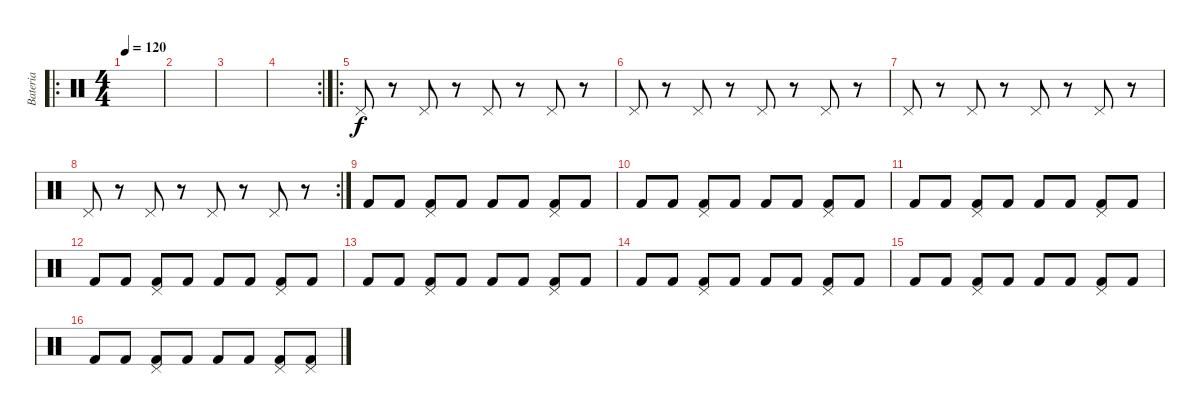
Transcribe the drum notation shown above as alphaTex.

\track ("Bateria" "Bateria") {instrument percussion}
\staff {score}
\articulation defaults
\ro
\ts (4 4)
\tempo 120
\clef neutral
\ks c
|
|
|
\rc 2
|
\ro "Pedal Hi-Hat (hit)".8
r.8 "Pedal Hi-Hat (hit)".8 r.8 "Pedal Hi-Hat (hit)".8 r.8 "Pedal Hi-Hat (hit)".8 r.8 |
"Pedal Hi-Hat (hit)".8 r.8 "Pedal Hi-Hat (hit)".8 r.8 "Pedal Hi-Hat (hit)".8 r.8 "Pedal Hi-Hat (hit)".8 r.8 |
"Pedal Hi-Hat (hit)".8 r.8 "Pedal Hi-Hat (hit)".8 r.8 "Pedal Hi-Hat (hit)".8 r.8 "Pedal Hi-Hat (hit)".8 r.8 |
\rc 2 "Pedal Hi-Hat (hit)".8
r.8 "Pedal Hi-Hat (hit)".8 r.8 "Pedal Hi-Hat (hit)".8 r.8 "Pedal Hi-Hat (hit)".8 r.8 |
"Kick (hit) 2".8 "Kick (hit) 2".8 ("Kick (hit) 2" "Pedal Hi-Hat (hit)").8 "Kick (hit) 2".8 "Kick (hit) 2".8 "Kick (hit) 2".8 ("Kick (hit) 2" "Pedal Hi-Hat (hit)").8 "Kick (hit) 2".8 |
"Kick (hit) 2".8 "Kick (hit) 2".8 ("Kick (hit) 2" "Pedal Hi-Hat (hit)").8 "Kick (hit) 2".8 "Kick (hit) 2".8 "Kick (hit) 2".8 ("Kick (hit) 2" "Pedal Hi-Hat (hit)").8 "Kick (hit) 2".8 |
"Kick (hit) 2".8 "Kick (hit) 2".8 ("Kick (hit) 2" "Pedal Hi-Hat (hit)").8 "Kick (hit) 2".8 "Kick (hit) 2".8 "Kick (hit) 2".8 ("Kick (hit) 2" "Pedal Hi-Hat (hit)").8 "Kick (hit) 2".8 |
"Kick (hit) 2".8 "Kick (hit) 2".8 ("Kick (hit) 2" "Pedal Hi-Hat (hit)").8 "Kick (hit) 2".8 "Kick (hit) 2".8 "Kick (hit) 2".8 ("Kick (hit) 2" "Pedal Hi-Hat (hit)").8 "Kick (hit) 2".8 |
"Kick (hit) 2".8 "Kick (hit) 2".8 ("Kick (hit) 2" "Pedal Hi-Hat (hit)").8 "Kick (hit) 2".8 "Kick (hit) 2".8 "Kick (hit) 2".8 ("Kick (hit) 2" "Pedal Hi-Hat (hit)").8 "Kick (hit) 2".8 |
"Kick (hit) 2".8 "Kick (hit) 2".8 ("Kick (hit) 2" "Pedal Hi-Hat (hit)").8 "Kick (hit) 2".8 "Kick (hit) 2".8 "Kick (hit) 2".8 ("Kick (hit) 2" "Pedal Hi-Hat (hit)").8 "Kick (hit) 2".8 |
"Kick (hit) 2".8 "Kick (hit) 2".8 ("Kick (hit) 2" "Pedal Hi-Hat (hit)").8 "Kick (hit) 2".8 "Kick (hit) 2".8 "Kick (hit) 2".8 ("Kick (hit) 2" "Pedal Hi-Hat (hit)").8 "Kick (hit) 2".8 |
"Kick (hit) 2".8 "Kick (hit) 2".8 ("Kick (hit) 2" "Pedal Hi-Hat (hit)").8 "Kick (hit) 2".8 "Kick (hit) 2".8 "Kick (hit) 2".8 ("Kick (hit) 2" "Pedal Hi-Hat (hit)").8 ("Kick (hit) 2" "Pedal Hi-Hat (hit)").8
